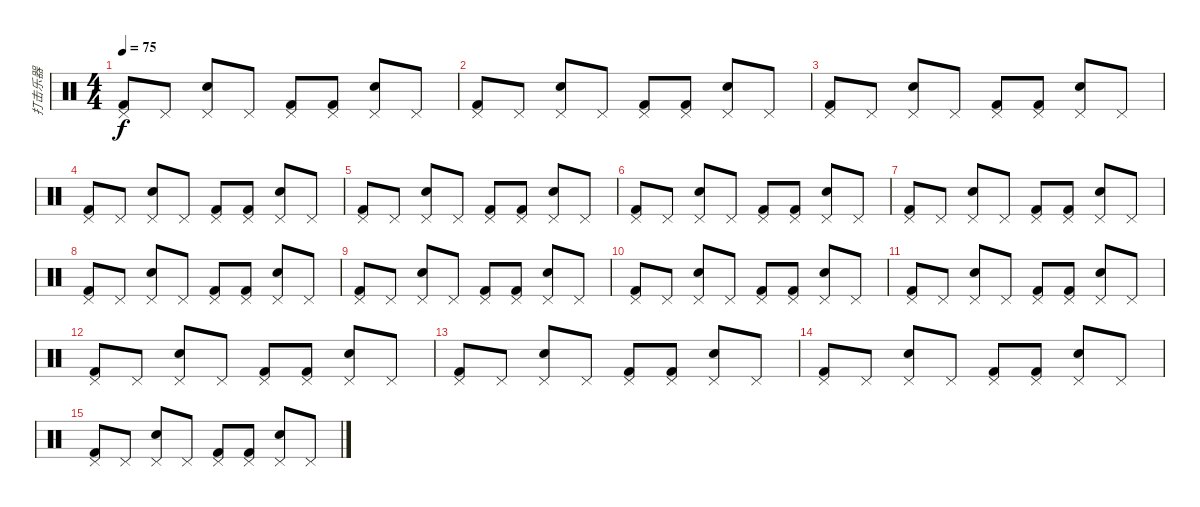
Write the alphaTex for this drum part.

\track ("打击乐器" "打击乐器") {instrument percussion}
\staff {score}
\articulation defaults
\ts (4 4)
\tempo 75
\clef neutral
\ks c
("Kick (hit) 2" "Pedal Hi-Hat (hit)").8{dy f} "Pedal Hi-Hat (hit)".8 ("Electric Snare (hit)" "Pedal Hi-Hat (hit)").8 "Pedal Hi-Hat (hit)".8 ("Kick (hit) 2" "Pedal Hi-Hat (hit)").8 ("Kick (hit) 2" "Pedal Hi-Hat (hit)").8 ("Electric Snare (hit)" "Pedal Hi-Hat (hit)").8 "Pedal Hi-Hat (hit)".8 |
("Kick (hit) 2" "Pedal Hi-Hat (hit)").8 "Pedal Hi-Hat (hit)".8 ("Electric Snare (hit)" "Pedal Hi-Hat (hit)").8 "Pedal Hi-Hat (hit)".8 ("Kick (hit) 2" "Pedal Hi-Hat (hit)").8 ("Kick (hit) 2" "Pedal Hi-Hat (hit)").8 ("Electric Snare (hit)" "Pedal Hi-Hat (hit)").8 "Pedal Hi-Hat (hit)".8 |
("Kick (hit) 2" "Pedal Hi-Hat (hit)").8 "Pedal Hi-Hat (hit)".8 ("Electric Snare (hit)" "Pedal Hi-Hat (hit)").8 "Pedal Hi-Hat (hit)".8 ("Kick (hit) 2" "Pedal Hi-Hat (hit)").8 ("Kick (hit) 2" "Pedal Hi-Hat (hit)").8 ("Electric Snare (hit)" "Pedal Hi-Hat (hit)").8 "Pedal Hi-Hat (hit)".8 |
("Kick (hit) 2" "Pedal Hi-Hat (hit)").8 "Pedal Hi-Hat (hit)".8 ("Electric Snare (hit)" "Pedal Hi-Hat (hit)").8 "Pedal Hi-Hat (hit)".8 ("Kick (hit) 2" "Pedal Hi-Hat (hit)").8 ("Kick (hit) 2" "Pedal Hi-Hat (hit)").8 ("Electric Snare (hit)" "Pedal Hi-Hat (hit)").8 "Pedal Hi-Hat (hit)".8 |
("Kick (hit) 2" "Pedal Hi-Hat (hit)").8 "Pedal Hi-Hat (hit)".8 ("Electric Snare (hit)" "Pedal Hi-Hat (hit)").8 "Pedal Hi-Hat (hit)".8 ("Kick (hit) 2" "Pedal Hi-Hat (hit)").8 ("Kick (hit) 2" "Pedal Hi-Hat (hit)").8 ("Electric Snare (hit)" "Pedal Hi-Hat (hit)").8 "Pedal Hi-Hat (hit)".8 |
("Kick (hit) 2" "Pedal Hi-Hat (hit)").8 "Pedal Hi-Hat (hit)".8 ("Electric Snare (hit)" "Pedal Hi-Hat (hit)").8 "Pedal Hi-Hat (hit)".8 ("Kick (hit) 2" "Pedal Hi-Hat (hit)").8 ("Kick (hit) 2" "Pedal Hi-Hat (hit)").8 ("Electric Snare (hit)" "Pedal Hi-Hat (hit)").8 "Pedal Hi-Hat (hit)".8 |
("Kick (hit) 2" "Pedal Hi-Hat (hit)").8 "Pedal Hi-Hat (hit)".8 ("Electric Snare (hit)" "Pedal Hi-Hat (hit)").8 "Pedal Hi-Hat (hit)".8 ("Kick (hit) 2" "Pedal Hi-Hat (hit)").8 ("Kick (hit) 2" "Pedal Hi-Hat (hit)").8 ("Electric Snare (hit)" "Pedal Hi-Hat (hit)").8 "Pedal Hi-Hat (hit)".8 |
("Kick (hit) 2" "Pedal Hi-Hat (hit)").8 "Pedal Hi-Hat (hit)".8 ("Electric Snare (hit)" "Pedal Hi-Hat (hit)").8 "Pedal Hi-Hat (hit)".8 ("Kick (hit) 2" "Pedal Hi-Hat (hit)").8 ("Kick (hit) 2" "Pedal Hi-Hat (hit)").8 ("Electric Snare (hit)" "Pedal Hi-Hat (hit)").8 "Pedal Hi-Hat (hit)".8 |
("Kick (hit) 2" "Pedal Hi-Hat (hit)").8 "Pedal Hi-Hat (hit)".8 ("Electric Snare (hit)" "Pedal Hi-Hat (hit)").8 "Pedal Hi-Hat (hit)".8 ("Kick (hit) 2" "Pedal Hi-Hat (hit)").8 ("Kick (hit) 2" "Pedal Hi-Hat (hit)").8 ("Electric Snare (hit)" "Pedal Hi-Hat (hit)").8 "Pedal Hi-Hat (hit)".8 |
("Kick (hit) 2" "Pedal Hi-Hat (hit)").8 "Pedal Hi-Hat (hit)".8 ("Electric Snare (hit)" "Pedal Hi-Hat (hit)").8 "Pedal Hi-Hat (hit)".8 ("Kick (hit) 2" "Pedal Hi-Hat (hit)").8 ("Kick (hit) 2" "Pedal Hi-Hat (hit)").8 ("Electric Snare (hit)" "Pedal Hi-Hat (hit)").8 "Pedal Hi-Hat (hit)".8 |
("Kick (hit) 2" "Pedal Hi-Hat (hit)").8 "Pedal Hi-Hat (hit)".8 ("Electric Snare (hit)" "Pedal Hi-Hat (hit)").8 "Pedal Hi-Hat (hit)".8 ("Kick (hit) 2" "Pedal Hi-Hat (hit)").8 ("Kick (hit) 2" "Pedal Hi-Hat (hit)").8 ("Electric Snare (hit)" "Pedal Hi-Hat (hit)").8 "Pedal Hi-Hat (hit)".8 |
("Kick (hit) 2" "Pedal Hi-Hat (hit)").8 "Pedal Hi-Hat (hit)".8 ("Electric Snare (hit)" "Pedal Hi-Hat (hit)").8 "Pedal Hi-Hat (hit)".8 ("Kick (hit) 2" "Pedal Hi-Hat (hit)").8 ("Kick (hit) 2" "Pedal Hi-Hat (hit)").8 ("Electric Snare (hit)" "Pedal Hi-Hat (hit)").8 "Pedal Hi-Hat (hit)".8 |
("Kick (hit) 2" "Pedal Hi-Hat (hit)").8 "Pedal Hi-Hat (hit)".8 ("Electric Snare (hit)" "Pedal Hi-Hat (hit)").8 "Pedal Hi-Hat (hit)".8 ("Kick (hit) 2" "Pedal Hi-Hat (hit)").8 ("Kick (hit) 2" "Pedal Hi-Hat (hit)").8 ("Electric Snare (hit)" "Pedal Hi-Hat (hit)").8 "Pedal Hi-Hat (hit)".8 |
("Kick (hit) 2" "Pedal Hi-Hat (hit)").8 "Pedal Hi-Hat (hit)".8 ("Electric Snare (hit)" "Pedal Hi-Hat (hit)").8 "Pedal Hi-Hat (hit)".8 ("Kick (hit) 2" "Pedal Hi-Hat (hit)").8 ("Kick (hit) 2" "Pedal Hi-Hat (hit)").8 ("Electric Snare (hit)" "Pedal Hi-Hat (hit)").8 "Pedal Hi-Hat (hit)".8 |
("Kick (hit) 2" "Pedal Hi-Hat (hit)").8 "Pedal Hi-Hat (hit)".8 ("Electric Snare (hit)" "Pedal Hi-Hat (hit)").8 "Pedal Hi-Hat (hit)".8 ("Kick (hit) 2" "Pedal Hi-Hat (hit)").8 ("Kick (hit) 2" "Pedal Hi-Hat (hit)").8 ("Electric Snare (hit)" "Pedal Hi-Hat (hit)").8 "Pedal Hi-Hat (hit)".8
